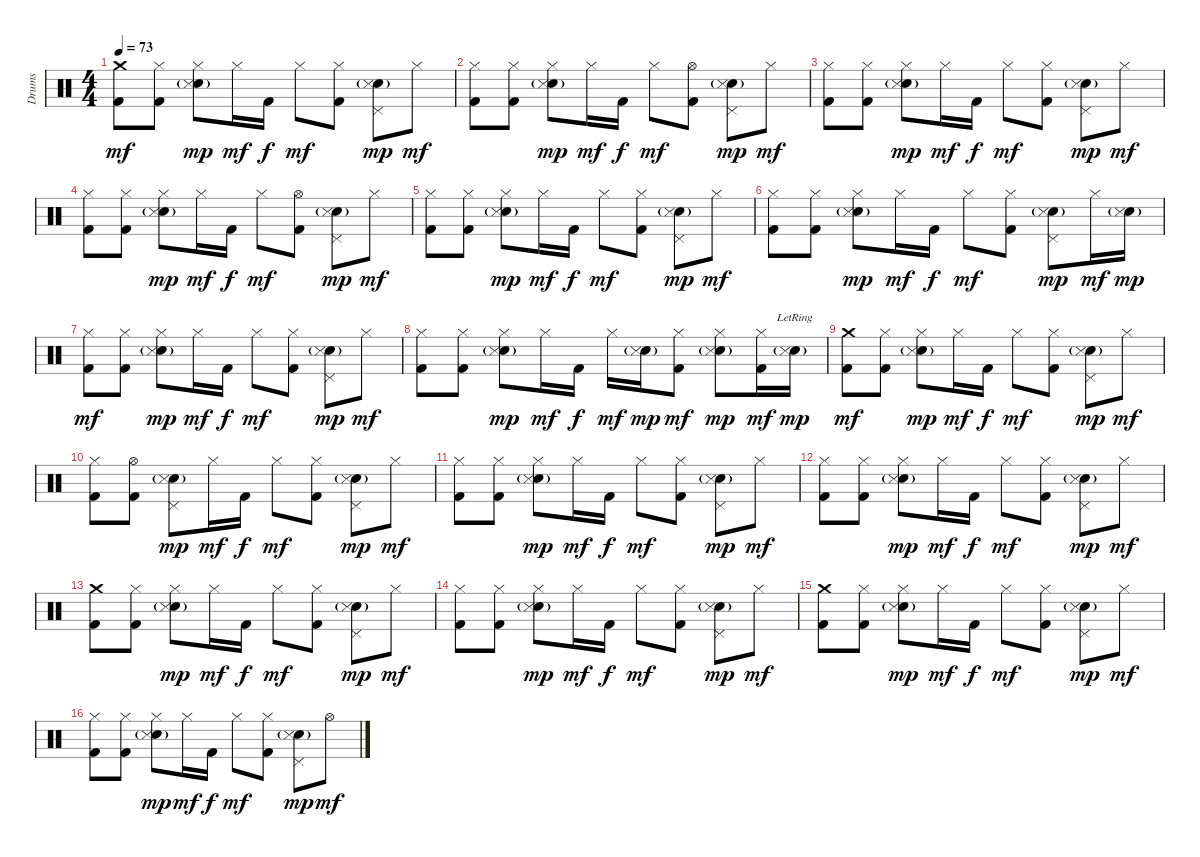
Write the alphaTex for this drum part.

\track ("Drums" "Drums") {instrument percussion}
\staff {score}
\articulation defaults
\ts (4 4)
\tempo 73
\clef neutral
\ks c
("Crash medium (hit)" "Kick (hit) 2").8{dy mf} ("Hi-Hat (closed)" "Kick (hit) 2").8 ("Hi-Hat (closed)" "Snare (hit) 2"{g} "Snare (side stick) 3").8{dy mp} "Hi-Hat (closed)".16{dy mf} "Kick (hit) 2".16{dy f} "Hi-Hat (closed)".8{dy mf} ("Hi-Hat (closed)" "Kick (hit) 2").8 ("Pedal Hi-Hat (hit)" "Snare (hit) 2"{g} "Snare (side stick) 3").8{dy mp} "Hi-Hat (closed)".8{dy mf} |
("Hi-Hat (closed)" "Kick (hit) 2").8 ("Hi-Hat (closed)" "Kick (hit) 2").8 ("Hi-Hat (closed)" "Snare (hit) 2"{g} "Snare (side stick) 3").8{dy mp} "Hi-Hat (closed)".16{dy mf} "Kick (hit) 2".16{dy f} "Hi-Hat (closed)".8{dy mf} ("Hi-Hat (open)" "Kick (hit) 2").8 ("Pedal Hi-Hat (hit)" "Snare (hit) 2"{g} "Snare (side stick) 3").8{dy mp} "Hi-Hat (closed)".8{dy mf} |
("Hi-Hat (closed)" "Kick (hit) 2").8 ("Hi-Hat (closed)" "Kick (hit) 2").8 ("Hi-Hat (closed)" "Snare (hit) 2"{g} "Snare (side stick) 3").8{dy mp} "Hi-Hat (closed)".16{dy mf} "Kick (hit) 2".16{dy f} "Hi-Hat (closed)".8{dy mf} ("Hi-Hat (closed)" "Kick (hit) 2").8 ("Pedal Hi-Hat (hit)" "Snare (hit) 2"{g} "Snare (side stick) 3").8{dy mp} "Hi-Hat (closed)".8{dy mf} |
("Hi-Hat (closed)" "Kick (hit) 2").8 ("Hi-Hat (closed)" "Kick (hit) 2").8 ("Hi-Hat (closed)" "Snare (hit) 2"{g} "Snare (side stick) 3").8{dy mp} "Hi-Hat (closed)".16{dy mf} "Kick (hit) 2".16{dy f} "Hi-Hat (closed)".8{dy mf} ("Hi-Hat (open)" "Kick (hit) 2").8 ("Pedal Hi-Hat (hit)" "Snare (hit) 2"{g} "Snare (side stick) 3").8{dy mp} "Hi-Hat (closed)".8{dy mf} |
("Hi-Hat (closed)" "Kick (hit) 2").8 ("Hi-Hat (closed)" "Kick (hit) 2").8 ("Hi-Hat (closed)" "Snare (hit) 2"{g} "Snare (side stick) 3").8{dy mp} "Hi-Hat (closed)".16{dy mf} "Kick (hit) 2".16{dy f} "Hi-Hat (closed)".8{dy mf} ("Hi-Hat (closed)" "Kick (hit) 2").8 ("Pedal Hi-Hat (hit)" "Snare (hit) 2"{g} "Snare (side stick) 3").8{dy mp} "Hi-Hat (closed)".8{dy mf} |
("Hi-Hat (closed)" "Kick (hit) 2").8 ("Hi-Hat (closed)" "Kick (hit) 2").8 ("Hi-Hat (closed)" "Snare (hit) 2"{g} "Snare (side stick) 3").8{dy mp} "Hi-Hat (closed)".16{dy mf} "Kick (hit) 2".16{dy f} "Hi-Hat (closed)".8{dy mf} ("Hi-Hat (closed)" "Kick (hit) 2").8 ("Pedal Hi-Hat (hit)" "Snare (hit) 2"{g} "Snare (side stick) 3").8{dy mp} "Hi-Hat (closed)".16{dy mf} ("Snare (hit) 2"{g} "Snare (side stick) 3").16{dy mp} |
("Hi-Hat (closed)" "Kick (hit) 2").8{dy mf} ("Hi-Hat (closed)" "Kick (hit) 2").8 ("Hi-Hat (closed)" "Snare (hit) 2"{g} "Snare (side stick) 3").8{dy mp} "Hi-Hat (closed)".16{dy mf} "Kick (hit) 2".16{dy f} "Hi-Hat (closed)".8{dy mf} ("Hi-Hat (closed)" "Kick (hit) 2").8 ("Pedal Hi-Hat (hit)" "Snare (hit) 2"{g} "Snare (side stick) 3").8{dy mp} "Hi-Hat (closed)".8{dy mf} |
("Hi-Hat (closed)" "Kick (hit) 2").8 ("Hi-Hat (closed)" "Kick (hit) 2").8 ("Hi-Hat (closed)" "Snare (hit) 2"{g} "Snare (side stick) 3").8{dy mp} "Hi-Hat (closed)".16{dy mf} "Kick (hit) 2".16{dy f} "Hi-Hat (closed)".16{dy mf} ("Snare (hit) 2"{g} "Snare (side stick) 3").16{dy mp} ("Hi-Hat (closed)" "Kick (hit) 2").8{dy mf} ("Hi-Hat (closed)" "Snare (hit) 2"{g} "Snare (side stick) 3").8{dy mp} ("Hi-Hat (closed)" "Kick (hit) 2").16{dy mf} ("Snare (hit) 2"{g lr} "Snare (side stick) 3").16{dy mp} |
("Crash medium (hit)" "Kick (hit) 2").8{dy mf} ("Hi-Hat (closed)" "Kick (hit) 2").8 ("Hi-Hat (closed)" "Snare (hit) 2"{g} "Snare (side stick) 3").8{dy mp} "Hi-Hat (closed)".16{dy mf} "Kick (hit) 2".16{dy f} "Hi-Hat (closed)".8{dy mf} ("Hi-Hat (closed)" "Kick (hit) 2").8 ("Pedal Hi-Hat (hit)" "Snare (hit) 2"{g} "Snare (side stick) 3").8{dy mp} "Hi-Hat (closed)".8{dy mf} |
("Hi-Hat (closed)" "Kick (hit) 2").8 ("Hi-Hat (open)" "Kick (hit) 2").8 ("Pedal Hi-Hat (hit)" "Snare (hit) 2"{g} "Snare (side stick) 3").8{dy mp} "Hi-Hat (closed)".16{dy mf} "Kick (hit) 2".16{dy f} "Hi-Hat (closed)".8{dy mf} ("Hi-Hat (closed)" "Kick (hit) 2").8 ("Pedal Hi-Hat (hit)" "Snare (hit) 2"{g} "Snare (side stick) 3").8{dy mp} "Hi-Hat (closed)".8{dy mf} |
("Hi-Hat (closed)" "Kick (hit) 2").8 ("Hi-Hat (closed)" "Kick (hit) 2").8 ("Hi-Hat (closed)" "Snare (hit) 2"{g} "Snare (side stick) 3").8{dy mp} "Hi-Hat (closed)".16{dy mf} "Kick (hit) 2".16{dy f} "Hi-Hat (closed)".8{dy mf} ("Hi-Hat (closed)" "Kick (hit) 2").8 ("Pedal Hi-Hat (hit)" "Snare (hit) 2"{g} "Snare (side stick) 3").8{dy mp} "Hi-Hat (closed)".8{dy mf} |
("Hi-Hat (closed)" "Kick (hit) 2").8 ("Hi-Hat (closed)" "Kick (hit) 2").8 ("Hi-Hat (closed)" "Snare (hit) 2"{g} "Snare (side stick) 3").8{dy mp} "Hi-Hat (closed)".16{dy mf} "Kick (hit) 2".16{dy f} "Hi-Hat (closed)".8{dy mf} ("Hi-Hat (closed)" "Kick (hit) 2").8 ("Pedal Hi-Hat (hit)" "Snare (hit) 2"{g} "Snare (side stick) 3").8{dy mp} "Hi-Hat (closed)".8{dy mf} |
("Crash medium (hit)" "Kick (hit) 2").8 ("Hi-Hat (closed)" "Kick (hit) 2").8 ("Hi-Hat (closed)" "Snare (hit) 2"{g} "Snare (side stick) 3").8{dy mp} "Hi-Hat (closed)".16{dy mf} "Kick (hit) 2".16{dy f} "Hi-Hat (closed)".8{dy mf} ("Hi-Hat (closed)" "Kick (hit) 2").8 ("Pedal Hi-Hat (hit)" "Snare (hit) 2"{g} "Snare (side stick) 3").8{dy mp} "Hi-Hat (closed)".8{dy mf} |
("Hi-Hat (closed)" "Kick (hit) 2").8 ("Hi-Hat (closed)" "Kick (hit) 2").8 ("Hi-Hat (closed)" "Snare (hit) 2"{g} "Snare (side stick) 3").8{dy mp} "Hi-Hat (closed)".16{dy mf} "Kick (hit) 2".16{dy f} "Hi-Hat (closed)".8{dy mf} ("Hi-Hat (closed)" "Kick (hit) 2").8 ("Pedal Hi-Hat (hit)" "Snare (hit) 2"{g} "Snare (side stick) 3").8{dy mp} "Hi-Hat (closed)".8{dy mf} |
("Crash medium (hit)" "Kick (hit) 2").8 ("Hi-Hat (closed)" "Kick (hit) 2").8 ("Hi-Hat (closed)" "Snare (hit) 2"{g} "Snare (side stick) 3").8{dy mp} "Hi-Hat (closed)".16{dy mf} "Kick (hit) 2".16{dy f} "Hi-Hat (closed)".8{dy mf} ("Hi-Hat (closed)" "Kick (hit) 2").8 ("Pedal Hi-Hat (hit)" "Snare (hit) 2"{g} "Snare (side stick) 3").8{dy mp} "Hi-Hat (closed)".8{dy mf} |
("Hi-Hat (closed)" "Kick (hit) 2").8 ("Hi-Hat (closed)" "Kick (hit) 2").8 ("Hi-Hat (closed)" "Snare (hit) 2"{g} "Snare (side stick) 3").8{dy mp} "Hi-Hat (closed)".16{dy mf} "Kick (hit) 2".16{dy f} "Hi-Hat (closed)".8{dy mf} ("Hi-Hat (closed)" "Kick (hit) 2").8 ("Pedal Hi-Hat (hit)" "Snare (hit) 2"{g} "Snare (side stick) 3").8{dy mp} "Hi-Hat (open)".8{dy mf}
